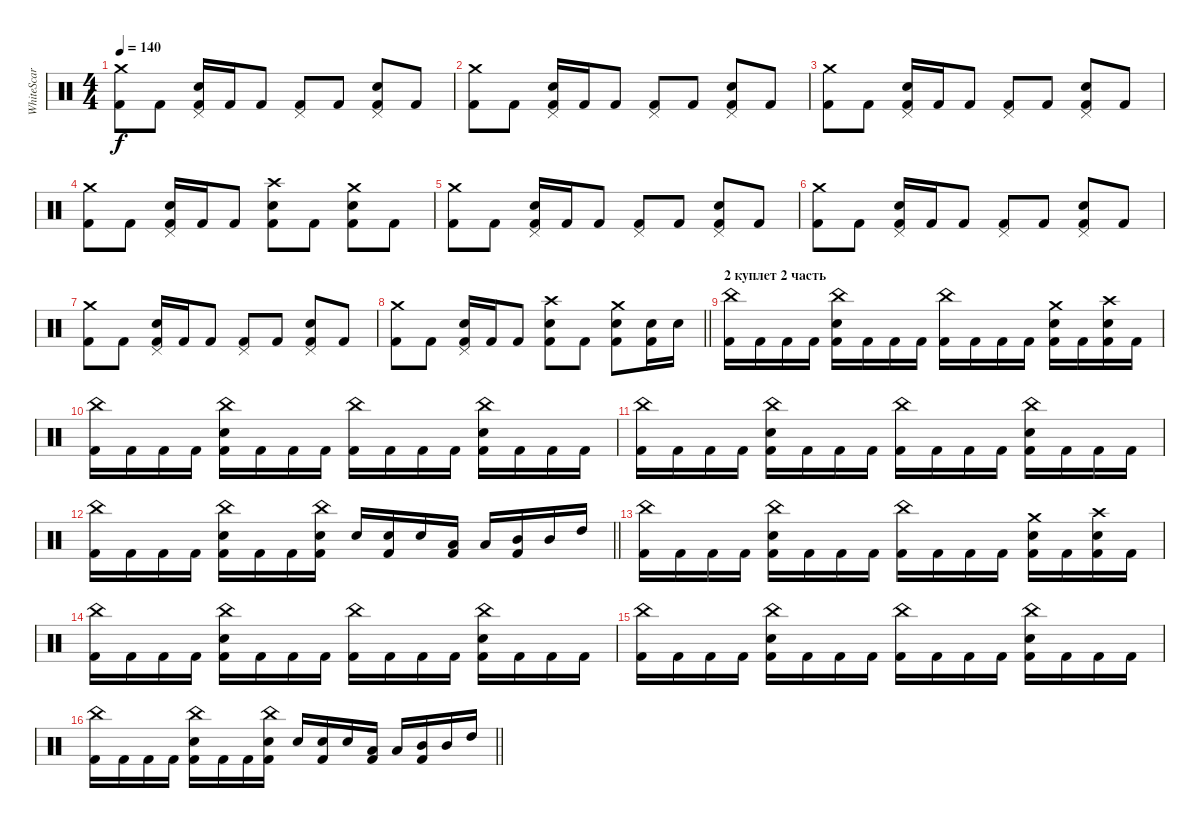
\track ("WhiteScar " "WhiteScar ") {instrument percussion}
\staff {score}
\articulation defaults
\ts (4 4)
\tempo 140
\clef neutral
\ks c
("Crash medium (hit)" "Kick (hit) 2").8{dy f} "Kick (hit) 2".8 ("Pedal Hi-Hat (hit)" "Snare (hit) 2" "Kick (hit) 2").16 "Kick (hit) 2".16 "Kick (hit) 2".8 ("Pedal Hi-Hat (hit)" "Kick (hit) 2").8 "Kick (hit) 2".8 ("Pedal Hi-Hat (hit)" "Snare (hit) 2" "Kick (hit) 2").8 "Kick (hit) 2".8 |
("Crash medium (hit)" "Kick (hit) 2").8 "Kick (hit) 2".8 ("Pedal Hi-Hat (hit)" "Snare (hit) 2" "Kick (hit) 2").16 "Kick (hit) 2".16 "Kick (hit) 2".8 ("Pedal Hi-Hat (hit)" "Kick (hit) 2").8 "Kick (hit) 2".8 ("Pedal Hi-Hat (hit)" "Snare (hit) 2" "Kick (hit) 2").8 "Kick (hit) 2".8 |
("Crash medium (hit)" "Kick (hit) 2").8 "Kick (hit) 2".8 ("Pedal Hi-Hat (hit)" "Snare (hit) 2" "Kick (hit) 2").16 "Kick (hit) 2".16 "Kick (hit) 2".8 ("Pedal Hi-Hat (hit)" "Kick (hit) 2").8 "Kick (hit) 2".8 ("Pedal Hi-Hat (hit)" "Snare (hit) 2" "Kick (hit) 2").8 "Kick (hit) 2".8 |
("Crash medium (hit)" "Kick (hit) 2").8 "Kick (hit) 2".8 ("Pedal Hi-Hat (hit)" "Snare (hit) 2" "Kick (hit) 2").16 "Kick (hit) 2".16 "Kick (hit) 2".8 ("Crash high (hit)" "Snare (hit) 2" "Kick (hit) 2").8 "Kick (hit) 2".8 ("Crash medium (hit)" "Snare (hit) 2" "Kick (hit) 2").8 "Kick (hit) 2".8 |
("Crash medium (hit)" "Kick (hit) 2").8 "Kick (hit) 2".8 ("Pedal Hi-Hat (hit)" "Snare (hit) 2" "Kick (hit) 2").16 "Kick (hit) 2".16 "Kick (hit) 2".8 ("Pedal Hi-Hat (hit)" "Kick (hit) 2").8 "Kick (hit) 2".8 ("Pedal Hi-Hat (hit)" "Snare (hit) 2" "Kick (hit) 2").8 "Kick (hit) 2".8 |
("Crash medium (hit)" "Kick (hit) 2").8 "Kick (hit) 2".8 ("Pedal Hi-Hat (hit)" "Snare (hit) 2" "Kick (hit) 2").16 "Kick (hit) 2".16 "Kick (hit) 2".8 ("Pedal Hi-Hat (hit)" "Kick (hit) 2").8 "Kick (hit) 2".8 ("Pedal Hi-Hat (hit)" "Snare (hit) 2" "Kick (hit) 2").8 "Kick (hit) 2".8 |
("Crash medium (hit)" "Kick (hit) 2").8 "Kick (hit) 2".8 ("Pedal Hi-Hat (hit)" "Snare (hit) 2" "Kick (hit) 2").16 "Kick (hit) 2".16 "Kick (hit) 2".8 ("Pedal Hi-Hat (hit)" "Kick (hit) 2").8 "Kick (hit) 2".8 ("Pedal Hi-Hat (hit)" "Snare (hit) 2" "Kick (hit) 2").8 "Kick (hit) 2".8 |
\barLineRight lightlight
("Crash medium (hit)" "Kick (hit) 2").8 "Kick (hit) 2".8 ("Pedal Hi-Hat (hit)" "Snare (hit) 2" "Kick (hit) 2").16 "Kick (hit) 2".16 "Kick (hit) 2".8 ("Crash high (hit)" "Snare (hit) 2" "Kick (hit) 2").8 "Kick (hit) 2".8 ("Crash medium (hit)" "Snare (hit) 2" "Kick (hit) 2").8 ("Snare (hit) 2" "Kick (hit) 2").16 "Snare (hit) 2".16 |
\section ("" "2 куплет 2 часть")
("China (hit)" "Kick (hit) 2").16 "Kick (hit) 2".16 "Kick (hit) 2".16 "Kick (hit) 2".16 ("China (hit)" "Snare (hit) 2" "Kick (hit) 2").16 "Kick (hit) 2".16 "Kick (hit) 2".16 "Kick (hit) 2".16 ("China (hit)" "Kick (hit) 2").16 "Kick (hit) 2".16 "Kick (hit) 2".16 "Kick (hit) 2".16 ("Crash medium (hit)" "Snare (hit) 2" "Kick (hit) 2").16 "Kick (hit) 2".16 ("Crash high (hit)" "Snare (hit) 2" "Kick (hit) 2").16 "Kick (hit) 2".16 |
("China (hit)" "Kick (hit) 2").16 "Kick (hit) 2".16 "Kick (hit) 2".16 "Kick (hit) 2".16 ("China (hit)" "Snare (hit) 2" "Kick (hit) 2").16 "Kick (hit) 2".16 "Kick (hit) 2".16 "Kick (hit) 2".16 ("China (hit)" "Kick (hit) 2").16 "Kick (hit) 2".16 "Kick (hit) 2".16 "Kick (hit) 2".16 ("China (hit)" "Snare (hit) 2" "Kick (hit) 2").16 "Kick (hit) 2".16 "Kick (hit) 2".16 "Kick (hit) 2".16 |
("China (hit)" "Kick (hit) 2").16 "Kick (hit) 2".16 "Kick (hit) 2".16 "Kick (hit) 2".16 ("China (hit)" "Snare (hit) 2" "Kick (hit) 2").16 "Kick (hit) 2".16 "Kick (hit) 2".16 "Kick (hit) 2".16 ("China (hit)" "Kick (hit) 2").16 "Kick (hit) 2".16 "Kick (hit) 2".16 "Kick (hit) 2".16 ("China (hit)" "Snare (hit) 2" "Kick (hit) 2").16 "Kick (hit) 2".16 "Kick (hit) 2".16 "Kick (hit) 2".16 |
\barLineRight lightlight
("China (hit)" "Kick (hit) 2").16 "Kick (hit) 2".16 "Kick (hit) 2".16 "Kick (hit) 2".16 ("China (hit)" "Snare (hit) 2" "Kick (hit) 2").16 "Kick (hit) 2".16 "Kick (hit) 2".16 ("China (hit)" "Snare (hit) 2" "Kick (hit) 2").16 "Snare (hit) 2".16 ("Snare (hit) 2" "Kick (hit) 2").16 "Snare (hit) 2".16 ("Low Tom (hit)" "Kick (hit) 2").16 "Low Tom (hit)".16 ("Mid Tom (hit)" "Kick (hit) 2").16 "Mid Tom (hit)".16 "High Tom (hit)".16 |
("China (hit)" "Kick (hit) 2").16 "Kick (hit) 2".16 "Kick (hit) 2".16 "Kick (hit) 2".16 ("China (hit)" "Snare (hit) 2" "Kick (hit) 2").16 "Kick (hit) 2".16 "Kick (hit) 2".16 "Kick (hit) 2".16 ("China (hit)" "Kick (hit) 2").16 "Kick (hit) 2".16 "Kick (hit) 2".16 "Kick (hit) 2".16 ("Crash medium (hit)" "Snare (hit) 2" "Kick (hit) 2").16 "Kick (hit) 2".16 ("Crash high (hit)" "Snare (hit) 2" "Kick (hit) 2").16 "Kick (hit) 2".16 |
("China (hit)" "Kick (hit) 2").16 "Kick (hit) 2".16 "Kick (hit) 2".16 "Kick (hit) 2".16 ("China (hit)" "Snare (hit) 2" "Kick (hit) 2").16 "Kick (hit) 2".16 "Kick (hit) 2".16 "Kick (hit) 2".16 ("China (hit)" "Kick (hit) 2").16 "Kick (hit) 2".16 "Kick (hit) 2".16 "Kick (hit) 2".16 ("China (hit)" "Snare (hit) 2" "Kick (hit) 2").16 "Kick (hit) 2".16 "Kick (hit) 2".16 "Kick (hit) 2".16 |
("China (hit)" "Kick (hit) 2").16 "Kick (hit) 2".16 "Kick (hit) 2".16 "Kick (hit) 2".16 ("China (hit)" "Snare (hit) 2" "Kick (hit) 2").16 "Kick (hit) 2".16 "Kick (hit) 2".16 "Kick (hit) 2".16 ("China (hit)" "Kick (hit) 2").16 "Kick (hit) 2".16 "Kick (hit) 2".16 "Kick (hit) 2".16 ("China (hit)" "Snare (hit) 2" "Kick (hit) 2").16 "Kick (hit) 2".16 "Kick (hit) 2".16 "Kick (hit) 2".16 |
\barLineRight lightlight
("China (hit)" "Kick (hit) 2").16 "Kick (hit) 2".16 "Kick (hit) 2".16 "Kick (hit) 2".16 ("China (hit)" "Snare (hit) 2" "Kick (hit) 2").16 "Kick (hit) 2".16 "Kick (hit) 2".16 ("China (hit)" "Snare (hit) 2" "Kick (hit) 2").16 "Snare (hit) 2".16 ("Snare (hit) 2" "Kick (hit) 2").16 "Snare (hit) 2".16 ("Low Tom (hit)" "Kick (hit) 2").16 "Low Tom (hit)".16 ("Mid Tom (hit)" "Kick (hit) 2").16 "Mid Tom (hit)".16 "High Tom (hit)".16
